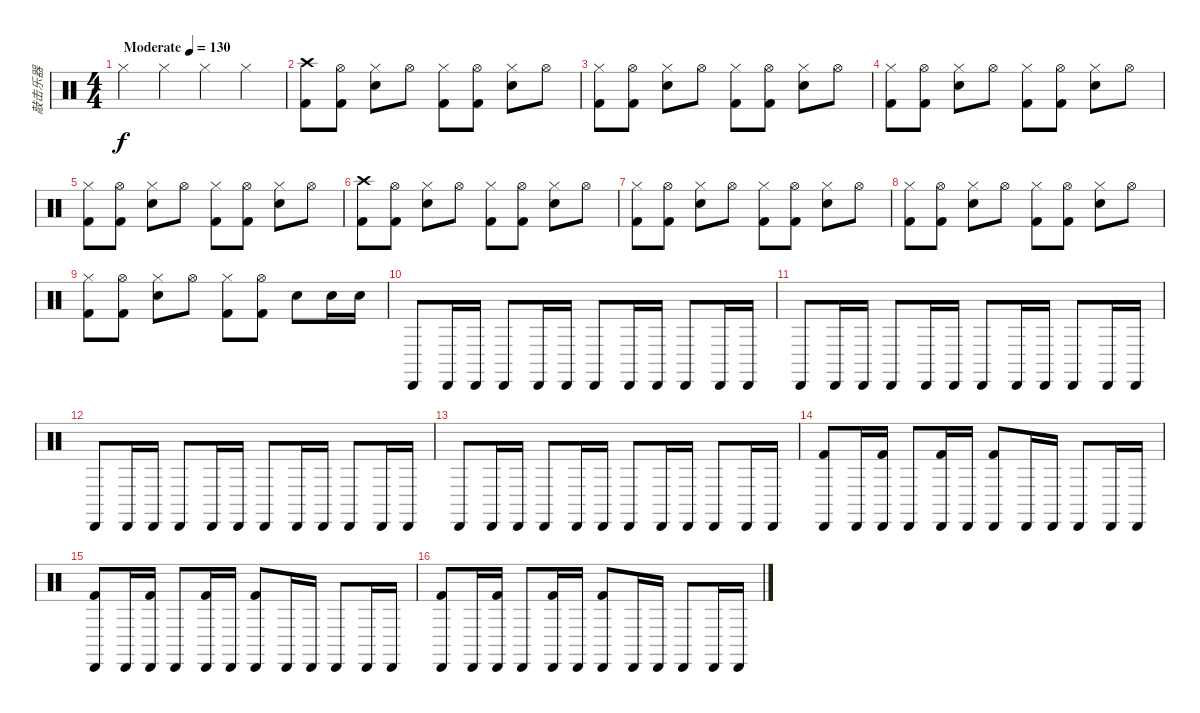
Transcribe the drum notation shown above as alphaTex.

\track ("敲击乐器" "敲击乐器") {instrument percussion}
\staff {score}
\articulation defaults
\ts (4 4)
\tempo (130 "Moderate")
\clef neutral
\ks c "Hi-Hat (closed)".4{dy f} "Hi-Hat (closed)".4 "Hi-Hat (closed)".4 "Hi-Hat (closed)".4
|
("Crash high (hit)" "Kick (hit) 2").8 ("Hi-Hat (open)" "Kick (hit) 2").8 ("Hi-Hat (closed)" "Electric Snare (hit)").8 "Hi-Hat (open)".8 ("Hi-Hat (closed)" "Kick (hit) 2").8 ("Hi-Hat (open)" "Kick (hit) 2").8 ("Hi-Hat (closed)" "Electric Snare (hit)").8 "Hi-Hat (open)".8 |
("Hi-Hat (closed)" "Kick (hit) 2").8 ("Hi-Hat (open)" "Kick (hit) 2").8 ("Hi-Hat (closed)" "Electric Snare (hit)").8 "Hi-Hat (open)".8 ("Hi-Hat (closed)" "Kick (hit) 2").8 ("Hi-Hat (open)" "Kick (hit) 2").8 ("Hi-Hat (closed)" "Electric Snare (hit)").8 "Hi-Hat (open)".8 |
("Hi-Hat (closed)" "Kick (hit) 2").8 ("Hi-Hat (open)" "Kick (hit) 2").8 ("Hi-Hat (closed)" "Electric Snare (hit)").8 "Hi-Hat (open)".8 ("Hi-Hat (closed)" "Kick (hit) 2").8 ("Hi-Hat (open)" "Kick (hit) 2").8 ("Hi-Hat (closed)" "Electric Snare (hit)").8 "Hi-Hat (open)".8 |
("Hi-Hat (closed)" "Kick (hit) 2").8 ("Hi-Hat (open)" "Kick (hit) 2").8 ("Hi-Hat (closed)" "Electric Snare (hit)").8 "Hi-Hat (open)".8 ("Hi-Hat (closed)" "Kick (hit) 2").8 ("Hi-Hat (open)" "Kick (hit) 2").8 ("Hi-Hat (closed)" "Electric Snare (hit)").8 "Hi-Hat (open)".8 |
("Crash high (hit)" "Kick (hit) 2").8 ("Hi-Hat (open)" "Kick (hit) 2").8 ("Hi-Hat (closed)" "Electric Snare (hit)").8 "Hi-Hat (open)".8 ("Hi-Hat (closed)" "Kick (hit) 2").8 ("Hi-Hat (open)" "Kick (hit) 2").8 ("Hi-Hat (closed)" "Electric Snare (hit)").8 "Hi-Hat (open)".8 |
("Hi-Hat (closed)" "Kick (hit) 2").8 ("Hi-Hat (open)" "Kick (hit) 2").8 ("Hi-Hat (closed)" "Electric Snare (hit)").8 "Hi-Hat (open)".8 ("Hi-Hat (closed)" "Kick (hit) 2").8 ("Hi-Hat (open)" "Kick (hit) 2").8 ("Hi-Hat (closed)" "Electric Snare (hit)").8 "Hi-Hat (open)".8 |
("Hi-Hat (closed)" "Kick (hit) 2").8 ("Hi-Hat (open)" "Kick (hit) 2").8 ("Hi-Hat (closed)" "Electric Snare (hit)").8 "Hi-Hat (open)".8 ("Hi-Hat (closed)" "Kick (hit) 2").8 ("Hi-Hat (open)" "Kick (hit) 2").8 ("Hi-Hat (closed)" "Electric Snare (hit)").8 "Hi-Hat (open)".8 |
("Hi-Hat (closed)" "Kick (hit) 2").8 ("Hi-Hat (open)" "Kick (hit) 2").8 ("Hi-Hat (closed)" "Electric Snare (hit)").8 "Hi-Hat (open)".8 ("Hi-Hat (closed)" "Kick (hit) 2").8 ("Hi-Hat (open)" "Kick (hit) 2").8 "Electric Snare (hit)".8 "Electric Snare (hit)".16 "Electric Snare (hit)".16 |
"Cabasa (hit)".8 "Cabasa (hit)".16 "Cabasa (hit)".16 "Cabasa (hit)".8 "Cabasa (hit)".16 "Cabasa (hit)".16 "Cabasa (hit)".8 "Cabasa (hit)".16 "Cabasa (hit)".16 "Cabasa (hit)".8 "Cabasa (hit)".16 "Cabasa (hit)".16 |
"Cabasa (hit)".8 "Cabasa (hit)".16 "Cabasa (hit)".16 "Cabasa (hit)".8 "Cabasa (hit)".16 "Cabasa (hit)".16 "Cabasa (hit)".8 "Cabasa (hit)".16 "Cabasa (hit)".16 "Cabasa (hit)".8 "Cabasa (hit)".16 "Cabasa (hit)".16 |
"Cabasa (hit)".8 "Cabasa (hit)".16 "Cabasa (hit)".16 "Cabasa (hit)".8 "Cabasa (hit)".16 "Cabasa (hit)".16 "Cabasa (hit)".8 "Cabasa (hit)".16 "Cabasa (hit)".16 "Cabasa (hit)".8 "Cabasa (hit)".16 "Cabasa (hit)".16 |
"Cabasa (hit)".8 "Cabasa (hit)".16 "Cabasa (hit)".16 "Cabasa (hit)".8 "Cabasa (hit)".16 "Cabasa (hit)".16 "Cabasa (hit)".8 "Cabasa (hit)".16 "Cabasa (hit)".16 "Cabasa (hit)".8 "Cabasa (hit)".16 "Cabasa (hit)".16 |
("Cabasa (hit)" "Kick (hit) 2").8 "Cabasa (hit)".16 ("Cabasa (hit)" "Kick (hit) 2").16 "Cabasa (hit)".8 ("Cabasa (hit)" "Kick (hit) 2").16 "Cabasa (hit)".16 ("Cabasa (hit)" "Kick (hit) 2").8 "Cabasa (hit)".16 "Cabasa (hit)".16 "Cabasa (hit)".8 "Cabasa (hit)".16 "Cabasa (hit)".16 |
("Cabasa (hit)" "Kick (hit) 2").8 "Cabasa (hit)".16 ("Cabasa (hit)" "Kick (hit) 2").16 "Cabasa (hit)".8 ("Cabasa (hit)" "Kick (hit) 2").16 "Cabasa (hit)".16 ("Cabasa (hit)" "Kick (hit) 2").8 "Cabasa (hit)".16 "Cabasa (hit)".16 "Cabasa (hit)".8 "Cabasa (hit)".16 "Cabasa (hit)".16 |
("Cabasa (hit)" "Kick (hit) 2").8 "Cabasa (hit)".16 ("Cabasa (hit)" "Kick (hit) 2").16 "Cabasa (hit)".8 ("Cabasa (hit)" "Kick (hit) 2").16 "Cabasa (hit)".16 ("Cabasa (hit)" "Kick (hit) 2").8 "Cabasa (hit)".16 "Cabasa (hit)".16 "Cabasa (hit)".8 "Cabasa (hit)".16 "Cabasa (hit)".16
